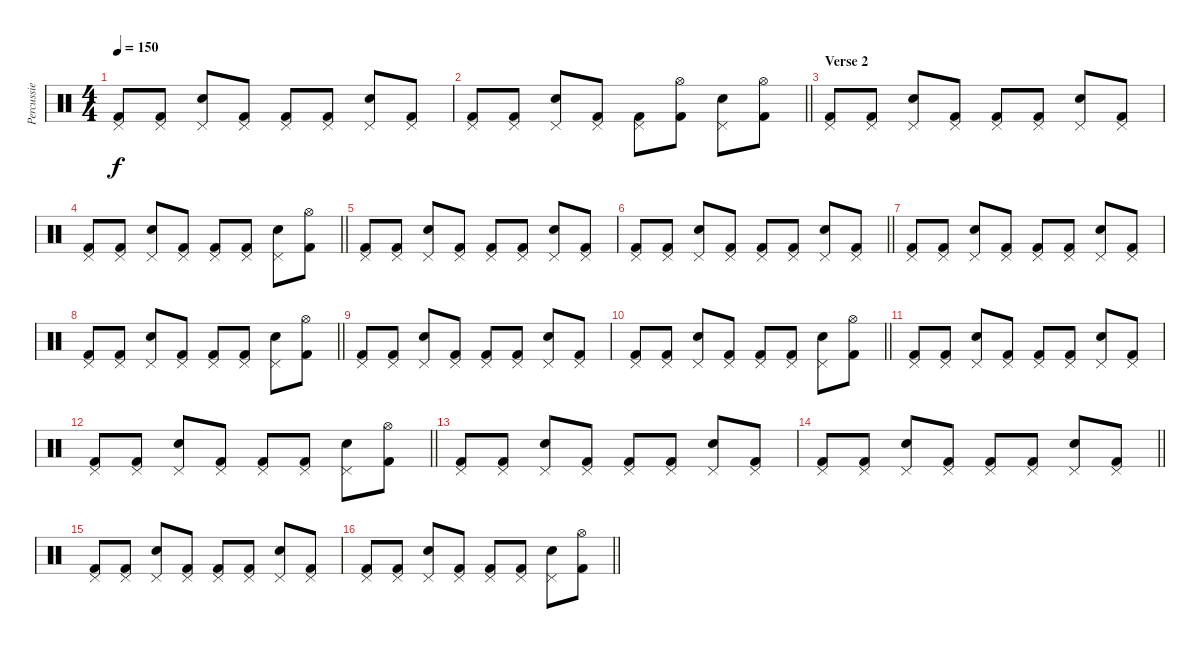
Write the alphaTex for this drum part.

\track ("Percussie" "Percussie") {instrument percussion}
\staff {score}
\articulation defaults
\ts (4 4)
\tempo 150
\clef neutral
\ks c
("Pedal Hi-Hat (hit)" "Kick (hit) 2").8{dy f} ("Pedal Hi-Hat (hit)" "Kick (hit) 2").8 ("Pedal Hi-Hat (hit)" "Snare (hit) 2").8 ("Pedal Hi-Hat (hit)" "Kick (hit) 2").8 ("Pedal Hi-Hat (hit)" "Kick (hit) 2").8 ("Pedal Hi-Hat (hit)" "Kick (hit) 2").8 ("Pedal Hi-Hat (hit)" "Snare (hit) 2").8 ("Pedal Hi-Hat (hit)" "Kick (hit) 2").8 |
\barLineRight lightlight
("Pedal Hi-Hat (hit)" "Kick (hit) 2").8 ("Pedal Hi-Hat (hit)" "Kick (hit) 2").8 ("Pedal Hi-Hat (hit)" "Snare (hit) 2").8 ("Pedal Hi-Hat (hit)" "Kick (hit) 2").8 ("Pedal Hi-Hat (hit)" "Kick (hit) 2").8 ("Hi-Hat (open)" "Kick (hit) 2").8 ("Pedal Hi-Hat (hit)" "Snare (hit) 2").8 ("Hi-Hat (open)" "Kick (hit) 2").8 |
\section ("" "Verse 2")
("Pedal Hi-Hat (hit)" "Kick (hit) 2").8 ("Pedal Hi-Hat (hit)" "Kick (hit) 2").8 ("Pedal Hi-Hat (hit)" "Snare (hit) 2").8 ("Pedal Hi-Hat (hit)" "Kick (hit) 2").8 ("Pedal Hi-Hat (hit)" "Kick (hit) 2").8 ("Pedal Hi-Hat (hit)" "Kick (hit) 2").8 ("Pedal Hi-Hat (hit)" "Snare (hit) 2").8 ("Pedal Hi-Hat (hit)" "Kick (hit) 2").8 |
\barLineRight lightlight
("Pedal Hi-Hat (hit)" "Kick (hit) 2").8 ("Pedal Hi-Hat (hit)" "Kick (hit) 2").8 ("Pedal Hi-Hat (hit)" "Snare (hit) 2").8 ("Pedal Hi-Hat (hit)" "Kick (hit) 2").8 ("Pedal Hi-Hat (hit)" "Kick (hit) 2").8 ("Pedal Hi-Hat (hit)" "Kick (hit) 2").8 ("Pedal Hi-Hat (hit)" "Snare (hit) 2").8 ("Hi-Hat (open)" "Kick (hit) 2").8 |
("Pedal Hi-Hat (hit)" "Kick (hit) 2").8 ("Pedal Hi-Hat (hit)" "Kick (hit) 2").8 ("Pedal Hi-Hat (hit)" "Snare (hit) 2").8 ("Pedal Hi-Hat (hit)" "Kick (hit) 2").8 ("Pedal Hi-Hat (hit)" "Kick (hit) 2").8 ("Pedal Hi-Hat (hit)" "Kick (hit) 2").8 ("Pedal Hi-Hat (hit)" "Snare (hit) 2").8 ("Pedal Hi-Hat (hit)" "Kick (hit) 2").8 |
\barLineRight lightlight
("Pedal Hi-Hat (hit)" "Kick (hit) 2").8 ("Pedal Hi-Hat (hit)" "Kick (hit) 2").8 ("Pedal Hi-Hat (hit)" "Snare (hit) 2").8 ("Pedal Hi-Hat (hit)" "Kick (hit) 2").8 ("Pedal Hi-Hat (hit)" "Kick (hit) 2").8 ("Pedal Hi-Hat (hit)" "Kick (hit) 2").8 ("Pedal Hi-Hat (hit)" "Snare (hit) 2").8 ("Pedal Hi-Hat (hit)" "Kick (hit) 2").8 |
("Pedal Hi-Hat (hit)" "Kick (hit) 2").8 ("Pedal Hi-Hat (hit)" "Kick (hit) 2").8 ("Pedal Hi-Hat (hit)" "Snare (hit) 2").8 ("Pedal Hi-Hat (hit)" "Kick (hit) 2").8 ("Pedal Hi-Hat (hit)" "Kick (hit) 2").8 ("Pedal Hi-Hat (hit)" "Kick (hit) 2").8 ("Pedal Hi-Hat (hit)" "Snare (hit) 2").8 ("Pedal Hi-Hat (hit)" "Kick (hit) 2").8 |
\barLineRight lightlight
("Pedal Hi-Hat (hit)" "Kick (hit) 2").8 ("Pedal Hi-Hat (hit)" "Kick (hit) 2").8 ("Pedal Hi-Hat (hit)" "Snare (hit) 2").8 ("Pedal Hi-Hat (hit)" "Kick (hit) 2").8 ("Pedal Hi-Hat (hit)" "Kick (hit) 2").8 ("Pedal Hi-Hat (hit)" "Kick (hit) 2").8 ("Pedal Hi-Hat (hit)" "Snare (hit) 2").8 ("Hi-Hat (open)" "Kick (hit) 2").8 |
("Pedal Hi-Hat (hit)" "Kick (hit) 2").8 ("Pedal Hi-Hat (hit)" "Kick (hit) 2").8 ("Pedal Hi-Hat (hit)" "Snare (hit) 2").8 ("Pedal Hi-Hat (hit)" "Kick (hit) 2").8 ("Pedal Hi-Hat (hit)" "Kick (hit) 2").8 ("Pedal Hi-Hat (hit)" "Kick (hit) 2").8 ("Pedal Hi-Hat (hit)" "Snare (hit) 2").8 ("Pedal Hi-Hat (hit)" "Kick (hit) 2").8 |
\barLineRight lightlight
("Pedal Hi-Hat (hit)" "Kick (hit) 2").8 ("Pedal Hi-Hat (hit)" "Kick (hit) 2").8 ("Pedal Hi-Hat (hit)" "Snare (hit) 2").8 ("Pedal Hi-Hat (hit)" "Kick (hit) 2").8 ("Pedal Hi-Hat (hit)" "Kick (hit) 2").8 ("Pedal Hi-Hat (hit)" "Kick (hit) 2").8 ("Pedal Hi-Hat (hit)" "Snare (hit) 2").8 ("Hi-Hat (open)" "Kick (hit) 2").8 |
("Pedal Hi-Hat (hit)" "Kick (hit) 2").8 ("Pedal Hi-Hat (hit)" "Kick (hit) 2").8 ("Pedal Hi-Hat (hit)" "Snare (hit) 2").8 ("Pedal Hi-Hat (hit)" "Kick (hit) 2").8 ("Pedal Hi-Hat (hit)" "Kick (hit) 2").8 ("Pedal Hi-Hat (hit)" "Kick (hit) 2").8 ("Pedal Hi-Hat (hit)" "Snare (hit) 2").8 ("Pedal Hi-Hat (hit)" "Kick (hit) 2").8 |
\barLineRight lightlight
("Pedal Hi-Hat (hit)" "Kick (hit) 2").8 ("Pedal Hi-Hat (hit)" "Kick (hit) 2").8 ("Pedal Hi-Hat (hit)" "Snare (hit) 2").8 ("Pedal Hi-Hat (hit)" "Kick (hit) 2").8 ("Pedal Hi-Hat (hit)" "Kick (hit) 2").8 ("Pedal Hi-Hat (hit)" "Kick (hit) 2").8 ("Pedal Hi-Hat (hit)" "Snare (hit) 2").8 ("Hi-Hat (open)" "Kick (hit) 2").8 |
("Pedal Hi-Hat (hit)" "Kick (hit) 2").8 ("Pedal Hi-Hat (hit)" "Kick (hit) 2").8 ("Pedal Hi-Hat (hit)" "Snare (hit) 2").8 ("Pedal Hi-Hat (hit)" "Kick (hit) 2").8 ("Pedal Hi-Hat (hit)" "Kick (hit) 2").8 ("Pedal Hi-Hat (hit)" "Kick (hit) 2").8 ("Pedal Hi-Hat (hit)" "Snare (hit) 2").8 ("Pedal Hi-Hat (hit)" "Kick (hit) 2").8 |
\barLineRight lightlight
("Pedal Hi-Hat (hit)" "Kick (hit) 2").8 ("Pedal Hi-Hat (hit)" "Kick (hit) 2").8 ("Pedal Hi-Hat (hit)" "Snare (hit) 2").8 ("Pedal Hi-Hat (hit)" "Kick (hit) 2").8 ("Pedal Hi-Hat (hit)" "Kick (hit) 2").8 ("Pedal Hi-Hat (hit)" "Kick (hit) 2").8 ("Pedal Hi-Hat (hit)" "Snare (hit) 2").8 ("Pedal Hi-Hat (hit)" "Kick (hit) 2").8 |
("Pedal Hi-Hat (hit)" "Kick (hit) 2").8 ("Pedal Hi-Hat (hit)" "Kick (hit) 2").8 ("Pedal Hi-Hat (hit)" "Snare (hit) 2").8 ("Pedal Hi-Hat (hit)" "Kick (hit) 2").8 ("Pedal Hi-Hat (hit)" "Kick (hit) 2").8 ("Pedal Hi-Hat (hit)" "Kick (hit) 2").8 ("Pedal Hi-Hat (hit)" "Snare (hit) 2").8 ("Pedal Hi-Hat (hit)" "Kick (hit) 2").8 |
\barLineRight lightlight
("Pedal Hi-Hat (hit)" "Kick (hit) 2").8 ("Pedal Hi-Hat (hit)" "Kick (hit) 2").8 ("Pedal Hi-Hat (hit)" "Snare (hit) 2").8 ("Pedal Hi-Hat (hit)" "Kick (hit) 2").8 ("Pedal Hi-Hat (hit)" "Kick (hit) 2").8 ("Pedal Hi-Hat (hit)" "Kick (hit) 2").8 ("Pedal Hi-Hat (hit)" "Snare (hit) 2").8 ("Hi-Hat (open)" "Kick (hit) 2").8
